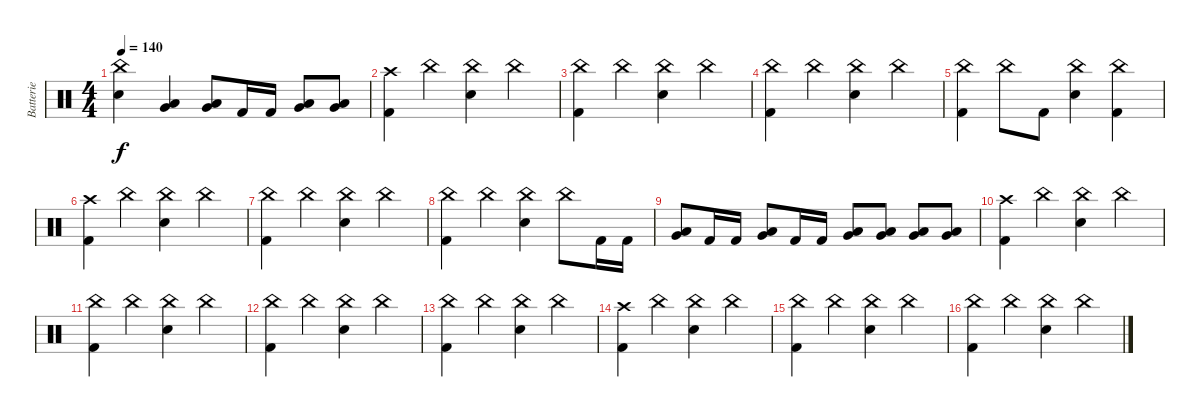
\track ("Batterie" "Batterie") {instrument percussion}
\staff {score}
\articulation defaults
\ts (4 4)
\tempo 140
\clef neutral
\ks c
("China (hit)" "Electric Snare (hit)").4{dy f} ("Low Tom (hit)" "Very Low Tom (hit)").4{bu 60} ("Very Low Tom (hit)" "Low Floor Tom (hit)").8{bu 60} "Kick (hit) 2".16 "Kick (hit) 2".16 ("Very Low Tom (hit)" "Low Floor Tom (hit)").8{bu 60} ("Very Low Tom (hit)" "Low Floor Tom (hit)").8{bu 60} |
("Crash high (hit)" "Kick (hit) 2").4 "China (hit)".4 ("China (hit)" "Electric Snare (hit)").4 "China (hit)".4 |
("China (hit)" "Kick (hit) 2").4 "China (hit)".4 ("China (hit)" "Electric Snare (hit)").4 "China (hit)".4 |
("China (hit)" "Kick (hit) 2").4 "China (hit)".4 ("China (hit)" "Electric Snare (hit)").4 "China (hit)".4 |
("China (hit)" "Kick (hit) 2").4 "China (hit)".8 "Kick (hit) 2".8 ("China (hit)" "Electric Snare (hit)").4 ("China (hit)" "Kick (hit) 2").4 |
("Crash high (hit)" "Kick (hit) 2").4 "China (hit)".4 ("China (hit)" "Electric Snare (hit)").4 "China (hit)".4 |
("China (hit)" "Kick (hit) 2").4 "China (hit)".4 ("China (hit)" "Electric Snare (hit)").4 "China (hit)".4 |
("China (hit)" "Kick (hit) 2").4 "China (hit)".4 ("China (hit)" "Electric Snare (hit)").4 "China (hit)".8 "Kick (hit) 2".16 "Kick (hit) 2".16 |
("Low Tom (hit)" "Very Low Tom (hit)").8{bu 60} "Kick (hit) 2".16 "Kick (hit) 2".16 ("Low Tom (hit)" "Very Low Tom (hit)").8{bu 60} "Kick (hit) 2".16 "Kick (hit) 2".16 ("Low Tom (hit)" "Very Low Tom (hit)").8{bu 60} ("Low Tom (hit)" "Very Low Tom (hit)").8{bu 60} ("Very Low Tom (hit)" "Low Floor Tom (hit)").8{bu 60} ("Very Low Tom (hit)" "Low Floor Tom (hit)").8{bu 60} |
("Crash high (hit)" "Kick (hit) 2").4 "China (hit)".4 ("China (hit)" "Electric Snare (hit)").4 "China (hit)".4 |
("China (hit)" "Kick (hit) 2").4 "China (hit)".4 ("China (hit)" "Electric Snare (hit)").4 "China (hit)".4 |
("China (hit)" "Kick (hit) 2").4 "China (hit)".4 ("China (hit)" "Electric Snare (hit)").4 "China (hit)".4 |
("China (hit)" "Kick (hit) 2").4 "China (hit)".4 ("China (hit)" "Electric Snare (hit)").4 "China (hit)".4 |
("Crash high (hit)" "Kick (hit) 2").4 "China (hit)".4 ("China (hit)" "Electric Snare (hit)").4 "China (hit)".4 |
("China (hit)" "Kick (hit) 2").4 "China (hit)".4 ("China (hit)" "Electric Snare (hit)").4 "China (hit)".4 |
("China (hit)" "Kick (hit) 2").4 "China (hit)".4 ("China (hit)" "Electric Snare (hit)").4 "China (hit)".4
